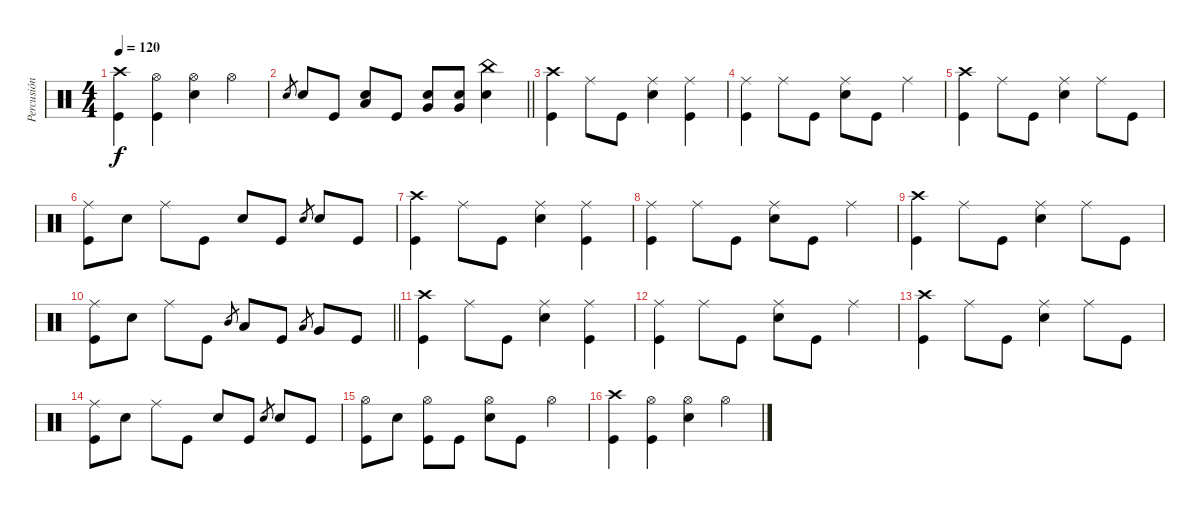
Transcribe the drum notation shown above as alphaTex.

\track ("Percusión" "Percusión") {instrument percussion}
\staff {score}
\articulation defaults
\ts (4 4)
\tempo 120
\clef neutral
\ks c
("Crash high (hit)" "Kick (hit)").4{dy f} ("Hi-Hat (open)" "Kick (hit)").4 ("Hi-Hat (open)" "Electric Snare (hit)").4 "Hi-Hat (open)".4 |
\barLineRight lightlight "Electric Snare (hit)".8{gr} "Electric Snare (hit)".8 "Kick (hit)".8
("Low Tom (hit)" "Electric Snare (hit)").8 "Kick (hit)".8 ("Very Low Tom (hit)" "Electric Snare (hit)").8 ("Very Low Tom (hit)" "Electric Snare (hit)").8 ("China (hit)" "Electric Snare (hit)").4 |
("Crash high (hit)" "Kick (hit)").4 "Ride (middle)".8 "Kick (hit)".8 ("Ride (middle)" "Electric Snare (hit)").4 ("Ride (middle)" "Kick (hit)").4 |
("Ride (middle)" "Kick (hit)").4 "Ride (middle)".8 "Kick (hit)".8 ("Ride (middle)" "Electric Snare (hit)").8 "Kick (hit)".8 "Ride (middle)".4 |
("Crash high (hit)" "Kick (hit)").4 "Ride (middle)".8 "Kick (hit)".8 ("Ride (middle)" "Electric Snare (hit)").4 "Ride (middle)".8 "Kick (hit)".8 |
("Ride (middle)" "Kick (hit)").8 "Electric Snare (hit)".8 "Ride (middle)".8 "Kick (hit)".8 "Electric Snare (hit)".8 "Kick (hit)".8 "Electric Snare (hit)".8{gr} "Electric Snare (hit)".8 "Kick (hit)".8 |
("Crash high (hit)" "Kick (hit)").4 "Ride (middle)".8 "Kick (hit)".8 ("Ride (middle)" "Electric Snare (hit)").4 ("Ride (middle)" "Kick (hit)").4 |
("Ride (middle)" "Kick (hit)").4 "Ride (middle)".8 "Kick (hit)".8 ("Ride (middle)" "Electric Snare (hit)").8 "Kick (hit)".8 "Ride (middle)".4 |
("Crash high (hit)" "Kick (hit)").4 "Ride (middle)".8 "Kick (hit)".8 ("Ride (middle)" "Electric Snare (hit)").4 "Ride (middle)".8 "Kick (hit)".8 |
\barLineRight lightlight
("Ride (middle)" "Kick (hit)").8 "Electric Snare (hit)".8 "Ride (middle)".8 "Kick (hit)".8 "Mid Tom (hit)".8{gr} "Low Tom (hit)".8 "Kick (hit)".8 "Low Tom (hit)".8{gr} "Very Low Tom (hit)".8 "Kick (hit)".8 |
("Crash high (hit)" "Kick (hit)").4 "Ride (middle)".8 "Kick (hit)".8 ("Ride (middle)" "Electric Snare (hit)").4 ("Ride (middle)" "Kick (hit)").4 |
("Ride (middle)" "Kick (hit)").4 "Ride (middle)".8 "Kick (hit)".8 ("Ride (middle)" "Electric Snare (hit)").8 "Kick (hit)".8 "Ride (middle)".4 |
("Crash high (hit)" "Kick (hit)").4 "Ride (middle)".8 "Kick (hit)".8 ("Ride (middle)" "Electric Snare (hit)").4 "Ride (middle)".8 "Kick (hit)".8 |
("Ride (middle)" "Kick (hit)").8 "Electric Snare (hit)".8 "Ride (middle)".8 "Kick (hit)".8 "Electric Snare (hit)".8 "Kick (hit)".8 "Electric Snare (hit)".8{gr} "Electric Snare (hit)".8 "Kick (hit)".8 |
("Hi-Hat (open)" "Kick (hit)").8 "Electric Snare (hit)".8 ("Hi-Hat (open)" "Kick (hit)").8 "Kick (hit)".8 ("Hi-Hat (open)" "Electric Snare (hit)").8 "Kick (hit)".8 "Hi-Hat (open)".4 |
("Crash high (hit)" "Kick (hit)").4 ("Hi-Hat (open)" "Kick (hit)").4 ("Hi-Hat (open)" "Electric Snare (hit)").4 "Hi-Hat (open)".4
